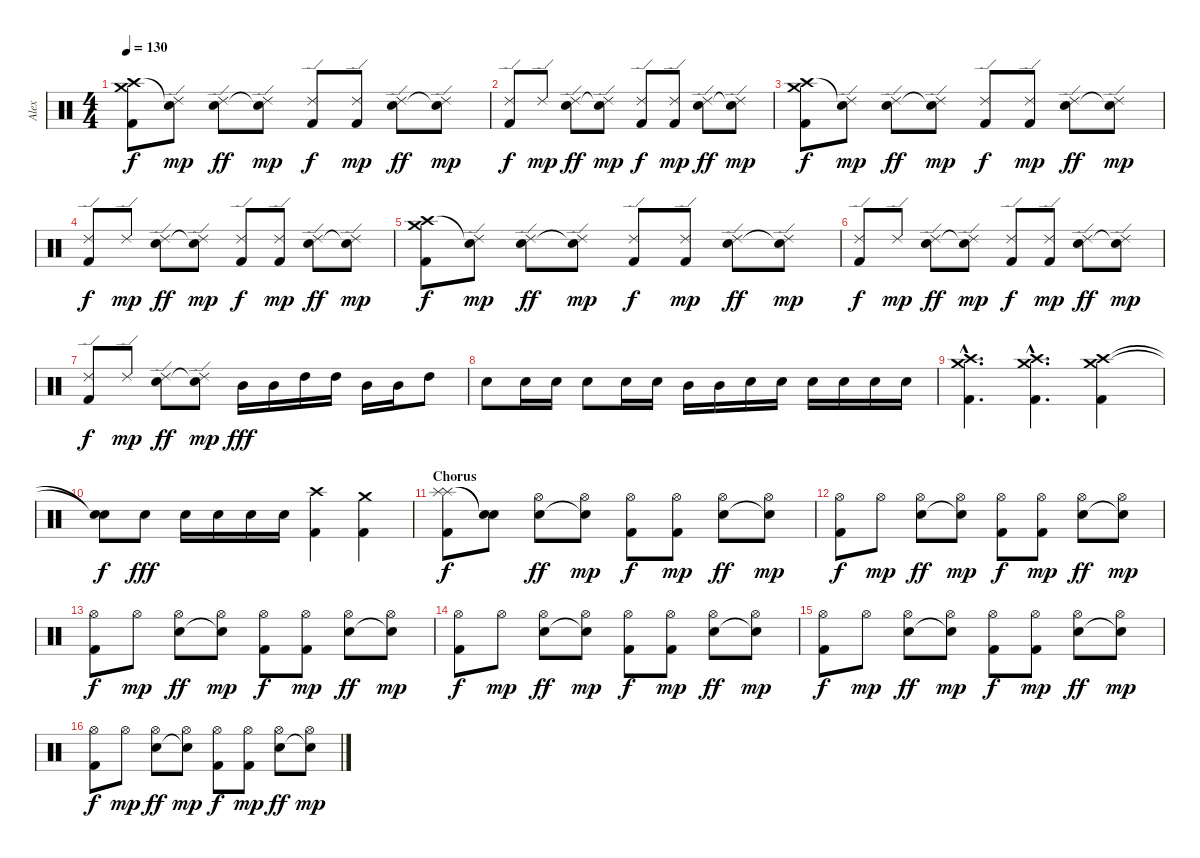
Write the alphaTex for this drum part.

\track ("Alex" "Alex") {instrument percussion}
\staff {score}
\articulation defaults
\ts (4 4)
\tempo 130
\clef neutral
\ks c
("Crash high (hit)" "Crash medium (hit)" "Kick (hit) 2").8{dy f} ("Snare (hit)"{t} "Ride (edge) 2").8{dy mp} ("Ride (edge) 2" "Electric Snare (hit)").8{dy ff} ("Ride (edge) 2" "Snare (hit)"{t}).8{dy mp} ("Ride (edge) 2" "Kick (hit) 2").8{dy f} ("Ride (edge) 2" "Kick (hit) 2").8{dy mp} ("Ride (edge) 2" "Electric Snare (hit)").8{dy ff} ("Ride (edge) 2" "Snare (hit)"{t}).8{dy mp} |
("Ride (edge) 2" "Kick (hit) 2").8{dy f} "Ride (edge) 2".8{dy mp} ("Ride (edge) 2" "Electric Snare (hit)").8{dy ff} ("Ride (edge) 2" "Snare (hit)"{t}).8{dy mp} ("Ride (edge) 2" "Kick (hit) 2").8{dy f} ("Ride (edge) 2" "Kick (hit) 2").8{dy mp} ("Ride (edge) 2" "Electric Snare (hit)").8{dy ff} ("Ride (edge) 2" "Snare (hit)"{t}).8{dy mp} |
("Crash high (hit)" "Crash medium (hit)" "Kick (hit) 2").8{dy f} ("Snare (hit)"{t} "Ride (edge) 2").8{dy mp} ("Ride (edge) 2" "Electric Snare (hit)").8{dy ff} ("Ride (edge) 2" "Snare (hit)"{t}).8{dy mp} ("Ride (edge) 2" "Kick (hit) 2").8{dy f} ("Ride (edge) 2" "Kick (hit) 2").8{dy mp} ("Ride (edge) 2" "Electric Snare (hit)").8{dy ff} ("Ride (edge) 2" "Snare (hit)"{t}).8{dy mp} |
("Ride (edge) 2" "Kick (hit) 2").8{dy f} "Ride (edge) 2".8{dy mp} ("Ride (edge) 2" "Electric Snare (hit)").8{dy ff} ("Ride (edge) 2" "Snare (hit)"{t}).8{dy mp} ("Ride (edge) 2" "Kick (hit) 2").8{dy f} ("Ride (edge) 2" "Kick (hit) 2").8{dy mp} ("Ride (edge) 2" "Electric Snare (hit)").8{dy ff} ("Ride (edge) 2" "Snare (hit)"{t}).8{dy mp} |
("Crash high (hit)" "Crash medium (hit)" "Kick (hit) 2").8{dy f} ("Snare (hit)"{t} "Ride (edge) 2").8{dy mp} ("Ride (edge) 2" "Electric Snare (hit)").8{dy ff} ("Ride (edge) 2" "Snare (hit)"{t}).8{dy mp} ("Ride (edge) 2" "Kick (hit) 2").8{dy f} ("Ride (edge) 2" "Kick (hit) 2").8{dy mp} ("Ride (edge) 2" "Electric Snare (hit)").8{dy ff} ("Ride (edge) 2" "Snare (hit)"{t}).8{dy mp} |
("Ride (edge) 2" "Kick (hit) 2").8{dy f} "Ride (edge) 2".8{dy mp} ("Ride (edge) 2" "Electric Snare (hit)").8{dy ff} ("Ride (edge) 2" "Snare (hit)"{t}).8{dy mp} ("Ride (edge) 2" "Kick (hit) 2").8{dy f} ("Ride (edge) 2" "Kick (hit) 2").8{dy mp} ("Ride (edge) 2" "Electric Snare (hit)").8{dy ff} ("Ride (edge) 2" "Snare (hit)"{t}).8{dy mp} |
("Ride (edge) 2" "Kick (hit) 2").8{dy f} "Ride (edge) 2".8{dy mp} ("Ride (edge) 2" "Electric Snare (hit)").8{dy ff} ("Ride (edge) 2" "Snare (hit)"{t}).8{dy mp} "Mid Tom (hit)".16{dy fff} "Mid Tom (hit)".16 "High Tom (hit)".16 "High Tom (hit)".16 "Mid Tom (hit)".16 "Mid Tom (hit)".16 "High Tom (hit)".8 |
"Electric Snare (hit)".8 "Electric Snare (hit)".16 "Electric Snare (hit)".16 "Electric Snare (hit)".8 "Electric Snare (hit)".16 "Electric Snare (hit)".16 "Mid Tom (hit)".16 "Mid Tom (hit)".16 "Electric Snare (hit)".16 "Electric Snare (hit)".16 "Electric Snare (hit)".16 "Electric Snare (hit)".16 "Electric Snare (hit)".16 "Electric Snare (hit)".16 |
("Crash medium (hit)"{hac} "Crash high (hit)"{hac} "Kick (hit) 2"{hac}).4{d} ("Crash medium (hit)"{hac} "Crash high (hit)"{hac} "Kick (hit) 2"{hac}).4{d} ("Crash medium (hit)" "Crash high (hit)" "Kick (hit) 2").4 |
("Snare (hit)"{t} "Snare (hit)"{t}).8{dy f} "Electric Snare (hit)".8{dy fff} "Electric Snare (hit)".16 "Electric Snare (hit)".16 "Electric Snare (hit)".16 "Electric Snare (hit)".16 ("Crash high (hit)" "Kick (hit) 2").4 ("Crash medium (hit)" "Kick (hit) 2").4 |
\section ("" "Chorus")
("Splash (hit)" "Splash (hit)" "Kick (hit) 2").8{dy f} ("Snare (hit)"{t} "Snare (hit)"{t}).8 ("Hi-Hat (open)" "Electric Snare (hit)").8{dy ff} ("Hi-Hat (open)" "Snare (hit)"{t}).8{dy mp} ("Hi-Hat (open)" "Kick (hit) 2").8{dy f} ("Hi-Hat (open)" "Kick (hit) 2").8{dy mp} ("Hi-Hat (open)" "Electric Snare (hit)").8{dy ff} ("Hi-Hat (open)" "Snare (hit)"{t}).8{dy mp} |
("Hi-Hat (open)" "Kick (hit) 2").8{dy f} "Hi-Hat (open)".8{dy mp} ("Hi-Hat (open)" "Electric Snare (hit)").8{dy ff} ("Hi-Hat (open)" "Snare (hit)"{t}).8{dy mp} ("Hi-Hat (open)" "Kick (hit) 2").8{dy f} ("Hi-Hat (open)" "Kick (hit) 2").8{dy mp} ("Hi-Hat (open)" "Electric Snare (hit)").8{dy ff} ("Hi-Hat (open)" "Snare (hit)"{t}).8{dy mp} |
("Hi-Hat (open)" "Kick (hit) 2").8{dy f} "Hi-Hat (open)".8{dy mp} ("Hi-Hat (open)" "Electric Snare (hit)").8{dy ff} ("Hi-Hat (open)" "Snare (hit)"{t}).8{dy mp} ("Hi-Hat (open)" "Kick (hit) 2").8{dy f} ("Hi-Hat (open)" "Kick (hit) 2").8{dy mp} ("Hi-Hat (open)" "Electric Snare (hit)").8{dy ff} ("Hi-Hat (open)" "Snare (hit)"{t}).8{dy mp} |
("Hi-Hat (open)" "Kick (hit) 2").8{dy f} "Hi-Hat (open)".8{dy mp} ("Hi-Hat (open)" "Electric Snare (hit)").8{dy ff} ("Hi-Hat (open)" "Snare (hit)"{t}).8{dy mp} ("Hi-Hat (open)" "Kick (hit) 2").8{dy f} ("Hi-Hat (open)" "Kick (hit) 2").8{dy mp} ("Hi-Hat (open)" "Electric Snare (hit)").8{dy ff} ("Hi-Hat (open)" "Snare (hit)"{t}).8{dy mp} |
("Hi-Hat (open)" "Kick (hit) 2").8{dy f} "Hi-Hat (open)".8{dy mp} ("Hi-Hat (open)" "Electric Snare (hit)").8{dy ff} ("Hi-Hat (open)" "Snare (hit)"{t}).8{dy mp} ("Hi-Hat (open)" "Kick (hit) 2").8{dy f} ("Hi-Hat (open)" "Kick (hit) 2").8{dy mp} ("Hi-Hat (open)" "Electric Snare (hit)").8{dy ff} ("Hi-Hat (open)" "Snare (hit)"{t}).8{dy mp} |
("Hi-Hat (open)" "Kick (hit) 2").8{dy f} "Hi-Hat (open)".8{dy mp} ("Hi-Hat (open)" "Electric Snare (hit)").8{dy ff} ("Hi-Hat (open)" "Snare (hit)"{t}).8{dy mp} ("Hi-Hat (open)" "Kick (hit) 2").8{dy f} ("Hi-Hat (open)" "Kick (hit) 2").8{dy mp} ("Hi-Hat (open)" "Electric Snare (hit)").8{dy ff} ("Hi-Hat (open)" "Snare (hit)"{t}).8{dy mp}
